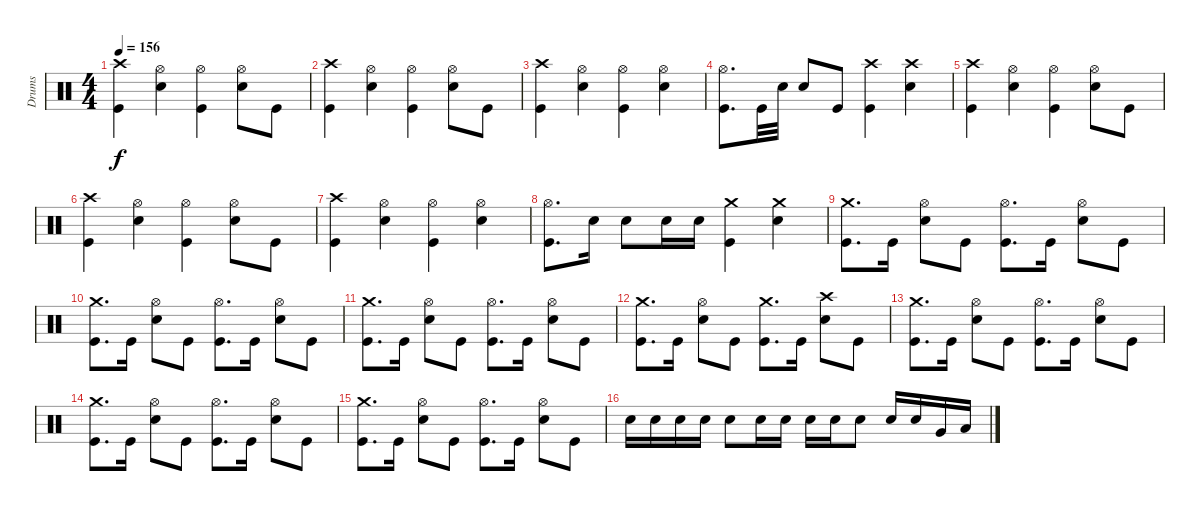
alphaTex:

\track ("Drums" "Drums") {instrument percussion}
\staff {score}
\articulation defaults
\ts (4 4)
\tempo 156
\clef neutral
\ks c
("Kick (hit)" "Crash high (hit)").4{dy f} ("Electric Snare (hit)" "Hi-Hat (open)").4 ("Kick (hit)" "Hi-Hat (open)").4 ("Electric Snare (hit)" "Hi-Hat (open)").8 "Kick (hit)".8 |
("Kick (hit)" "Crash high (hit)").4 ("Electric Snare (hit)" "Hi-Hat (open)").4 ("Kick (hit)" "Hi-Hat (open)").4 ("Electric Snare (hit)" "Hi-Hat (open)").8 "Kick (hit)".8 |
("Kick (hit)" "Crash high (hit)").4 ("Electric Snare (hit)" "Hi-Hat (open)").4 ("Kick (hit)" "Hi-Hat (open)").4 ("Electric Snare (hit)" "Hi-Hat (open)").4 |
("Kick (hit)" "Hi-Hat (open)").8{d} "Kick (hit)".32 "Electric Snare (hit)".32 "Electric Snare (hit)".8 "Kick (hit)".8 ("Kick (hit)" "Crash high (hit)").4 ("Electric Snare (hit)" "Crash high (hit)").4 |
("Kick (hit)" "Crash high (hit)").4 ("Electric Snare (hit)" "Hi-Hat (open)").4 ("Kick (hit)" "Hi-Hat (open)").4 ("Electric Snare (hit)" "Hi-Hat (open)").8 "Kick (hit)".8 |
("Kick (hit)" "Crash high (hit)").4 ("Electric Snare (hit)" "Hi-Hat (open)").4 ("Kick (hit)" "Hi-Hat (open)").4 ("Electric Snare (hit)" "Hi-Hat (open)").8 "Kick (hit)".8 |
("Kick (hit)" "Crash high (hit)").4 ("Electric Snare (hit)" "Hi-Hat (open)").4 ("Kick (hit)" "Hi-Hat (open)").4 ("Electric Snare (hit)" "Hi-Hat (open)").4 |
("Kick (hit)" "Hi-Hat (open)").8{d} "Electric Snare (hit)".16 "Electric Snare (hit)".8 "Electric Snare (hit)".16 "Electric Snare (hit)".16 ("Kick (hit)" "Crash medium (hit)").4 ("Electric Snare (hit)" "Crash medium (hit)").4 |
("Kick (hit)" "Crash medium (hit)").8{d} "Kick (hit)".16 ("Electric Snare (hit)" "Hi-Hat (open)").8 "Kick (hit)".8 ("Kick (hit)" "Hi-Hat (open)").8{d} "Kick (hit)".16 ("Electric Snare (hit)" "Hi-Hat (open)").8 "Kick (hit)".8 |
("Kick (hit)" "Crash medium (hit)").8{d} "Kick (hit)".16 ("Electric Snare (hit)" "Hi-Hat (open)").8 "Kick (hit)".8 ("Kick (hit)" "Hi-Hat (open)").8{d} "Kick (hit)".16 ("Electric Snare (hit)" "Hi-Hat (open)").8 "Kick (hit)".8 |
("Kick (hit)" "Crash medium (hit)").8{d} "Kick (hit)".16 ("Electric Snare (hit)" "Hi-Hat (open)").8 "Kick (hit)".8 ("Kick (hit)" "Hi-Hat (open)").8{d} "Kick (hit)".16 ("Electric Snare (hit)" "Hi-Hat (open)").8 "Kick (hit)".8 |
("Kick (hit)" "Crash medium (hit)").8{d} "Kick (hit)".16 ("Electric Snare (hit)" "Hi-Hat (open)").8 "Kick (hit)".8 ("Kick (hit)" "Crash medium (hit)").8{d} "Kick (hit)".16 ("Electric Snare (hit)" "Crash high (hit)").8 "Kick (hit)".8 |
("Kick (hit)" "Crash medium (hit)").8{d} "Kick (hit)".16 ("Electric Snare (hit)" "Hi-Hat (open)").8 "Kick (hit)".8 ("Kick (hit)" "Hi-Hat (open)").8{d} "Kick (hit)".16 ("Electric Snare (hit)" "Hi-Hat (open)").8 "Kick (hit)".8 |
("Kick (hit)" "Crash medium (hit)").8{d} "Kick (hit)".16 ("Electric Snare (hit)" "Hi-Hat (open)").8 "Kick (hit)".8 ("Kick (hit)" "Hi-Hat (open)").8{d} "Kick (hit)".16 ("Electric Snare (hit)" "Hi-Hat (open)").8 "Kick (hit)".8 |
("Kick (hit)" "Crash medium (hit)").8{d} "Kick (hit)".16 ("Electric Snare (hit)" "Hi-Hat (open)").8 "Kick (hit)".8 ("Kick (hit)" "Hi-Hat (open)").8{d} "Kick (hit)".16 ("Electric Snare (hit)" "Hi-Hat (open)").8 "Kick (hit)".8 |
"Electric Snare (hit)".16 "Electric Snare (hit)".16 "Electric Snare (hit)".16 "Electric Snare (hit)".16 "Electric Snare (hit)".8 "Electric Snare (hit)".16 "Electric Snare (hit)".16 "Electric Snare (hit)".16 "Electric Snare (hit)".16 "Electric Snare (hit)".8 "Electric Snare (hit)".16 "Electric Snare (hit)".16 "Very Low Tom (hit)".16 "Low Floor Tom (hit)".16
